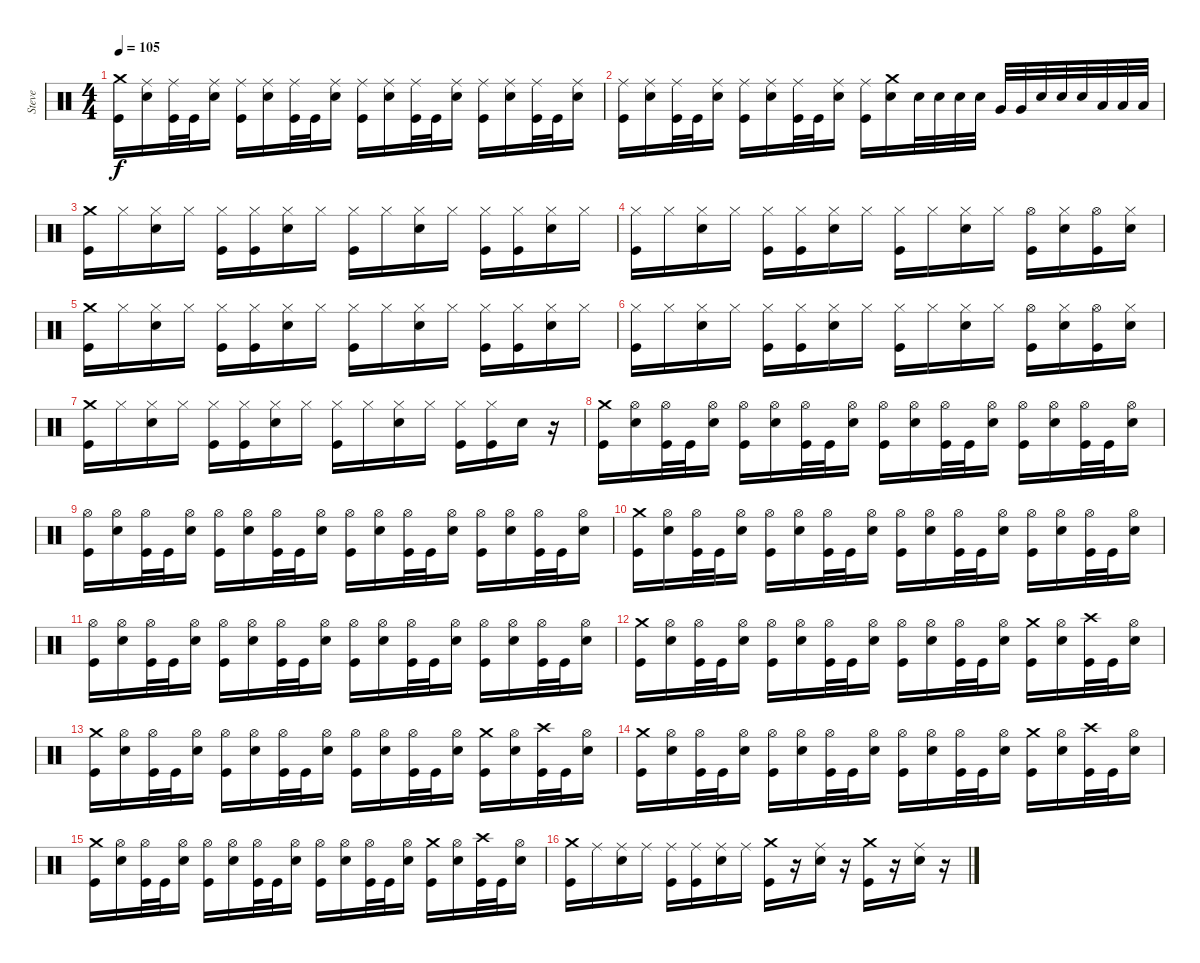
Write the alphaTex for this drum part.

\track ("Steve" "Steve") {instrument percussion}
\staff {score}
\articulation defaults
\ts (4 4)
\tempo 105
\clef neutral
\ks c
("Crash medium (hit)" "Kick (hit)").16{dy f} ("Ride (middle)" "Electric Snare (hit)").16 ("Ride (middle)" "Kick (hit)").32 "Kick (hit)".32 ("Ride (middle)" "Electric Snare (hit)").16 ("Ride (middle)" "Kick (hit)").16 ("Ride (middle)" "Electric Snare (hit)").16 ("Ride (middle)" "Kick (hit)").32 "Kick (hit)".32 ("Ride (middle)" "Electric Snare (hit)").16 ("Ride (middle)" "Kick (hit)").16 ("Ride (middle)" "Electric Snare (hit)").16 ("Ride (middle)" "Kick (hit)").32 "Kick (hit)".32 ("Ride (middle)" "Electric Snare (hit)").16 ("Ride (middle)" "Kick (hit)").16 ("Ride (middle)" "Electric Snare (hit)").16 ("Ride (middle)" "Kick (hit)").32 "Kick (hit)".32 ("Ride (middle)" "Electric Snare (hit)").16 |
("Ride (middle)" "Kick (hit)").16 ("Ride (middle)" "Electric Snare (hit)").16 ("Ride (middle)" "Kick (hit)").32 "Kick (hit)".32 ("Ride (middle)" "Electric Snare (hit)").16 ("Ride (middle)" "Kick (hit)").16 ("Ride (middle)" "Electric Snare (hit)").16 ("Ride (middle)" "Kick (hit)").32 "Kick (hit)".32 ("Ride (middle)" "Electric Snare (hit)").16 ("Ride (middle)" "Kick (hit)").16 ("Crash medium (hit)" "Electric Snare (hit)").16 "Electric Snare (hit)".32 "Electric Snare (hit)".32 "Electric Snare (hit)".32 "Electric Snare (hit)".32 "Very Low Tom (hit)".32 "Very Low Tom (hit)".32 "Electric Snare (hit)".32 "Electric Snare (hit)".32 "Electric Snare (hit)".32 "Low Tom (hit)".32 "Low Tom (hit)".32 "Low Tom (hit)".32 |
("Crash medium (hit)" "Kick (hit)").16 "Hi-Hat (closed)".16 ("Hi-Hat (closed)" "Electric Snare (hit)").16 "Hi-Hat (closed)".16 ("Hi-Hat (closed)" "Kick (hit)").16 ("Hi-Hat (closed)" "Kick (hit)").16 ("Hi-Hat (closed)" "Electric Snare (hit)").16 "Hi-Hat (closed)".16 ("Hi-Hat (closed)" "Kick (hit)").16 "Hi-Hat (closed)".16 ("Hi-Hat (closed)" "Electric Snare (hit)").16 "Hi-Hat (closed)".16 ("Hi-Hat (closed)" "Kick (hit)").16 ("Hi-Hat (closed)" "Kick (hit)").16 ("Hi-Hat (closed)" "Electric Snare (hit)").16 "Hi-Hat (closed)".16 |
("Hi-Hat (closed)" "Kick (hit)").16 "Hi-Hat (closed)".16 ("Hi-Hat (closed)" "Electric Snare (hit)").16 "Hi-Hat (closed)".16 ("Hi-Hat (closed)" "Kick (hit)").16 ("Hi-Hat (closed)" "Kick (hit)").16 ("Hi-Hat (closed)" "Electric Snare (hit)").16 "Hi-Hat (closed)".16 ("Hi-Hat (closed)" "Kick (hit)").16 "Hi-Hat (closed)".16 ("Hi-Hat (closed)" "Electric Snare (hit)").16 "Hi-Hat (closed)".16 ("Hi-Hat (open)" "Kick (hit)").16 ("Hi-Hat (closed)" "Electric Snare (hit)").16 ("Hi-Hat (open)" "Kick (hit)").16 ("Hi-Hat (closed)" "Electric Snare (hit)").16 |
("Crash medium (hit)" "Kick (hit)").16 "Hi-Hat (closed)".16 ("Hi-Hat (closed)" "Electric Snare (hit)").16 "Hi-Hat (closed)".16 ("Hi-Hat (closed)" "Kick (hit)").16 ("Hi-Hat (closed)" "Kick (hit)").16 ("Hi-Hat (closed)" "Electric Snare (hit)").16 "Hi-Hat (closed)".16 ("Hi-Hat (closed)" "Kick (hit)").16 "Hi-Hat (closed)".16 ("Hi-Hat (closed)" "Electric Snare (hit)").16 "Hi-Hat (closed)".16 ("Hi-Hat (closed)" "Kick (hit)").16 ("Hi-Hat (closed)" "Kick (hit)").16 ("Hi-Hat (closed)" "Electric Snare (hit)").16 "Hi-Hat (closed)".16 |
("Hi-Hat (closed)" "Kick (hit)").16 "Hi-Hat (closed)".16 ("Hi-Hat (closed)" "Electric Snare (hit)").16 "Hi-Hat (closed)".16 ("Hi-Hat (closed)" "Kick (hit)").16 ("Hi-Hat (closed)" "Kick (hit)").16 ("Hi-Hat (closed)" "Electric Snare (hit)").16 "Hi-Hat (closed)".16 ("Hi-Hat (closed)" "Kick (hit)").16 "Hi-Hat (closed)".16 ("Hi-Hat (closed)" "Electric Snare (hit)").16 "Hi-Hat (closed)".16 ("Hi-Hat (open)" "Kick (hit)").16 ("Hi-Hat (closed)" "Electric Snare (hit)").16 ("Hi-Hat (open)" "Kick (hit)").16 ("Hi-Hat (closed)" "Electric Snare (hit)").16 |
("Crash medium (hit)" "Kick (hit)").16 "Hi-Hat (closed)".16 ("Hi-Hat (closed)" "Electric Snare (hit)").16 "Hi-Hat (closed)".16 ("Hi-Hat (closed)" "Kick (hit)").16 ("Hi-Hat (closed)" "Kick (hit)").16 ("Hi-Hat (closed)" "Electric Snare (hit)").16 "Hi-Hat (closed)".16 ("Hi-Hat (closed)" "Kick (hit)").16 "Hi-Hat (closed)".16 ("Hi-Hat (closed)" "Electric Snare (hit)").16 "Hi-Hat (closed)".16 ("Hi-Hat (closed)" "Kick (hit)").16 ("Hi-Hat (closed)" "Kick (hit)").16 "Electric Snare (hit)".16 r.16 |
("Crash medium (hit)" "Kick (hit)").16 ("Hi-Hat (open)" "Electric Snare (hit)").16 ("Hi-Hat (open)" "Kick (hit)").32 "Kick (hit)".32 ("Hi-Hat (open)" "Electric Snare (hit)").16 ("Hi-Hat (open)" "Kick (hit)").16 ("Hi-Hat (open)" "Electric Snare (hit)").16 ("Hi-Hat (open)" "Kick (hit)").32 "Kick (hit)".32 ("Hi-Hat (open)" "Electric Snare (hit)").16 ("Hi-Hat (open)" "Kick (hit)").16 ("Hi-Hat (open)" "Electric Snare (hit)").16 ("Hi-Hat (open)" "Kick (hit)").32 "Kick (hit)".32 ("Hi-Hat (open)" "Electric Snare (hit)").16 ("Hi-Hat (open)" "Kick (hit)").16 ("Hi-Hat (open)" "Electric Snare (hit)").16 ("Hi-Hat (open)" "Kick (hit)").32 "Kick (hit)".32 ("Hi-Hat (open)" "Electric Snare (hit)").16 |
("Hi-Hat (open)" "Kick (hit)").16 ("Hi-Hat (open)" "Electric Snare (hit)").16 ("Hi-Hat (open)" "Kick (hit)").32 "Kick (hit)".32 ("Hi-Hat (open)" "Electric Snare (hit)").16 ("Hi-Hat (open)" "Kick (hit)").16 ("Hi-Hat (open)" "Electric Snare (hit)").16 ("Hi-Hat (open)" "Kick (hit)").32 "Kick (hit)".32 ("Hi-Hat (open)" "Electric Snare (hit)").16 ("Hi-Hat (open)" "Kick (hit)").16 ("Hi-Hat (open)" "Electric Snare (hit)").16 ("Hi-Hat (open)" "Kick (hit)").32 "Kick (hit)".32 ("Hi-Hat (open)" "Electric Snare (hit)").16 ("Hi-Hat (open)" "Kick (hit)").16 ("Hi-Hat (open)" "Electric Snare (hit)").16 ("Hi-Hat (open)" "Kick (hit)").32 "Kick (hit)".32 ("Hi-Hat (open)" "Electric Snare (hit)").16 |
("Crash medium (hit)" "Kick (hit)").16 ("Hi-Hat (open)" "Electric Snare (hit)").16 ("Hi-Hat (open)" "Kick (hit)").32 "Kick (hit)".32 ("Hi-Hat (open)" "Electric Snare (hit)").16 ("Hi-Hat (open)" "Kick (hit)").16 ("Hi-Hat (open)" "Electric Snare (hit)").16 ("Hi-Hat (open)" "Kick (hit)").32 "Kick (hit)".32 ("Hi-Hat (open)" "Electric Snare (hit)").16 ("Hi-Hat (open)" "Kick (hit)").16 ("Hi-Hat (open)" "Electric Snare (hit)").16 ("Hi-Hat (open)" "Kick (hit)").32 "Kick (hit)".32 ("Hi-Hat (open)" "Electric Snare (hit)").16 ("Hi-Hat (open)" "Kick (hit)").16 ("Hi-Hat (open)" "Electric Snare (hit)").16 ("Hi-Hat (open)" "Kick (hit)").32 "Kick (hit)".32 ("Hi-Hat (open)" "Electric Snare (hit)").16 |
("Hi-Hat (open)" "Kick (hit)").16 ("Hi-Hat (open)" "Electric Snare (hit)").16 ("Hi-Hat (open)" "Kick (hit)").32 "Kick (hit)".32 ("Hi-Hat (open)" "Electric Snare (hit)").16 ("Hi-Hat (open)" "Kick (hit)").16 ("Hi-Hat (open)" "Electric Snare (hit)").16 ("Hi-Hat (open)" "Kick (hit)").32 "Kick (hit)".32 ("Hi-Hat (open)" "Electric Snare (hit)").16 ("Hi-Hat (open)" "Kick (hit)").16 ("Hi-Hat (open)" "Electric Snare (hit)").16 ("Hi-Hat (open)" "Kick (hit)").32 "Kick (hit)".32 ("Hi-Hat (open)" "Electric Snare (hit)").16 ("Hi-Hat (open)" "Kick (hit)").16 ("Hi-Hat (open)" "Electric Snare (hit)").16 ("Hi-Hat (open)" "Kick (hit)").32 "Kick (hit)".32 ("Hi-Hat (open)" "Electric Snare (hit)").16 |
("Crash medium (hit)" "Kick (hit)").16 ("Hi-Hat (open)" "Electric Snare (hit)").16 ("Hi-Hat (open)" "Kick (hit)").32 "Kick (hit)".32 ("Hi-Hat (open)" "Electric Snare (hit)").16 ("Hi-Hat (open)" "Kick (hit)").16 ("Hi-Hat (open)" "Electric Snare (hit)").16 ("Hi-Hat (open)" "Kick (hit)").32 "Kick (hit)".32 ("Hi-Hat (open)" "Electric Snare (hit)").16 ("Hi-Hat (open)" "Kick (hit)").16 ("Hi-Hat (open)" "Electric Snare (hit)").16 ("Hi-Hat (open)" "Kick (hit)").32 "Kick (hit)".32 ("Hi-Hat (open)" "Electric Snare (hit)").16 ("Crash medium (hit)" "Kick (hit)").16 ("Hi-Hat (open)" "Electric Snare (hit)").16 ("Crash high (hit)" "Kick (hit)").32 "Kick (hit)".32 ("Hi-Hat (open)" "Electric Snare (hit)").16 |
("Crash medium (hit)" "Kick (hit)").16 ("Hi-Hat (open)" "Electric Snare (hit)").16 ("Hi-Hat (open)" "Kick (hit)").32 "Kick (hit)".32 ("Hi-Hat (open)" "Electric Snare (hit)").16 ("Hi-Hat (open)" "Kick (hit)").16 ("Hi-Hat (open)" "Electric Snare (hit)").16 ("Hi-Hat (open)" "Kick (hit)").32 "Kick (hit)".32 ("Hi-Hat (open)" "Electric Snare (hit)").16 ("Hi-Hat (open)" "Kick (hit)").16 ("Hi-Hat (open)" "Electric Snare (hit)").16 ("Hi-Hat (open)" "Kick (hit)").32 "Kick (hit)".32 ("Hi-Hat (open)" "Electric Snare (hit)").16 ("Crash medium (hit)" "Kick (hit)").16 ("Hi-Hat (open)" "Electric Snare (hit)").16 ("Crash high (hit)" "Kick (hit)").32 "Kick (hit)".32 ("Hi-Hat (open)" "Electric Snare (hit)").16 |
("Crash medium (hit)" "Kick (hit)").16 ("Hi-Hat (open)" "Electric Snare (hit)").16 ("Hi-Hat (open)" "Kick (hit)").32 "Kick (hit)".32 ("Hi-Hat (open)" "Electric Snare (hit)").16 ("Hi-Hat (open)" "Kick (hit)").16 ("Hi-Hat (open)" "Electric Snare (hit)").16 ("Hi-Hat (open)" "Kick (hit)").32 "Kick (hit)".32 ("Hi-Hat (open)" "Electric Snare (hit)").16 ("Hi-Hat (open)" "Kick (hit)").16 ("Hi-Hat (open)" "Electric Snare (hit)").16 ("Hi-Hat (open)" "Kick (hit)").32 "Kick (hit)".32 ("Hi-Hat (open)" "Electric Snare (hit)").16 ("Crash medium (hit)" "Kick (hit)").16 ("Hi-Hat (open)" "Electric Snare (hit)").16 ("Crash high (hit)" "Kick (hit)").32 "Kick (hit)".32 ("Hi-Hat (open)" "Electric Snare (hit)").16 |
("Crash medium (hit)" "Kick (hit)").16 ("Hi-Hat (open)" "Electric Snare (hit)").16 ("Hi-Hat (open)" "Kick (hit)").32 "Kick (hit)".32 ("Hi-Hat (open)" "Electric Snare (hit)").16 ("Hi-Hat (open)" "Kick (hit)").16 ("Hi-Hat (open)" "Electric Snare (hit)").16 ("Hi-Hat (open)" "Kick (hit)").32 "Kick (hit)".32 ("Hi-Hat (open)" "Electric Snare (hit)").16 ("Hi-Hat (open)" "Kick (hit)").16 ("Hi-Hat (open)" "Electric Snare (hit)").16 ("Hi-Hat (open)" "Kick (hit)").32 "Kick (hit)".32 ("Hi-Hat (open)" "Electric Snare (hit)").16 ("Crash medium (hit)" "Kick (hit)").16 ("Hi-Hat (open)" "Electric Snare (hit)").16 ("Crash high (hit)" "Kick (hit)").32 "Kick (hit)".32 ("Hi-Hat (open)" "Electric Snare (hit)").16 |
("Crash medium (hit)" "Kick (hit)").16 "Ride (middle)".16 ("Ride (middle)" "Electric Snare (hit)").16 "Ride (middle)".16 ("Ride (middle)" "Kick (hit)").16 ("Ride (middle)" "Kick (hit)").16 ("Ride (middle)" "Electric Snare (hit)").16 "Ride (middle)".16 ("Crash medium (hit)" "Kick (hit)").16 r.16 ("Ride (middle)" "Electric Snare (hit)").16 r.16 ("Crash medium (hit)" "Kick (hit)").16 r.16 ("Ride (middle)" "Electric Snare (hit)").16 r.16
